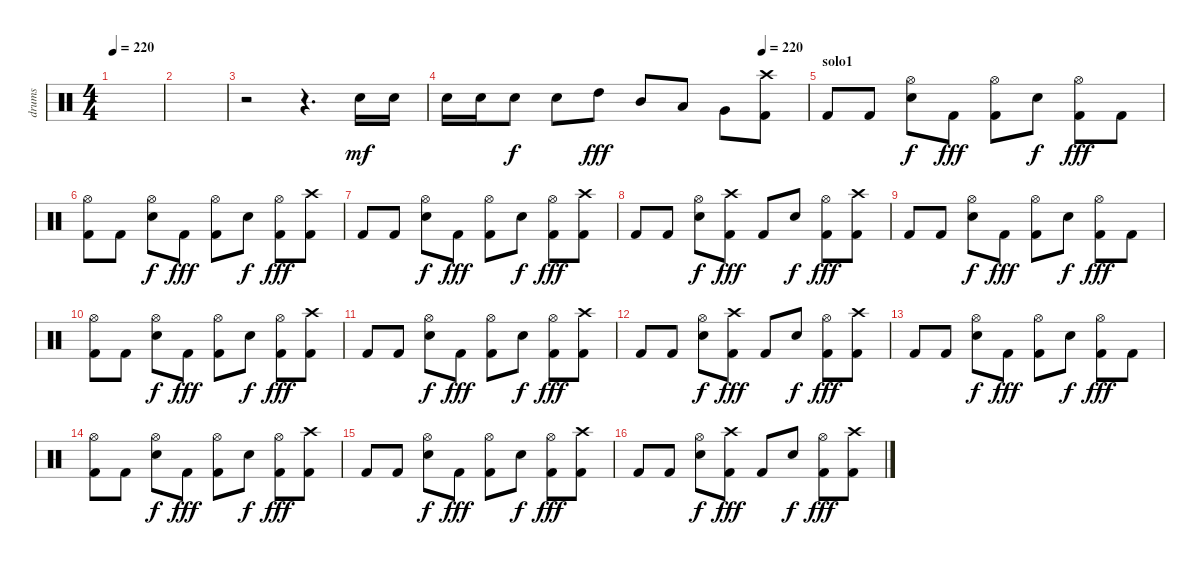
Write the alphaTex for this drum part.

\track ("drums" "drums") {instrument percussion}
\staff {score}
\articulation defaults
\ts (4 4)
\tempo 220
\clef neutral
\ks c
|
|
r.2 r.4{d} "Snare (hit) 2".16{dy mf} "Snare (hit) 2".16 |
\tempo (220 0.875)
"Snare (hit) 2".16 "Snare (hit) 2".16 "Snare (hit) 2".8{dy f} "Snare (hit) 2".8 "High Tom (hit)".8{dy fff} "Mid Tom (hit)".8 "Low Tom (hit)".8 "Very Low Tom (hit)".8 ("Crash high (hit)" "Kick (hit) 2").8 |
\section ("" "solo1")
"Kick (hit) 2".8 "Kick (hit) 2".8 ("Hi-Hat (open)" "Snare (hit) 2").8{dy f} "Kick (hit) 2".8{dy fff} ("Hi-Hat (open)" "Kick (hit) 2").8 "Snare (hit) 2".8{dy f} ("Hi-Hat (open)" "Kick (hit) 2").8{dy fff} "Kick (hit) 2".8 |
("Hi-Hat (open)" "Kick (hit) 2").8 "Kick (hit) 2".8 ("Hi-Hat (open)" "Snare (hit) 2").8{dy f} "Kick (hit) 2".8{dy fff} ("Hi-Hat (open)" "Kick (hit) 2").8 "Snare (hit) 2".8{dy f} ("Hi-Hat (open)" "Kick (hit) 2").8{dy fff} ("Crash high (hit)" "Kick (hit) 2").8 |
"Kick (hit) 2".8 "Kick (hit) 2".8 ("Hi-Hat (open)" "Snare (hit) 2").8{dy f} "Kick (hit) 2".8{dy fff} ("Hi-Hat (open)" "Kick (hit) 2").8 "Snare (hit) 2".8{dy f} ("Hi-Hat (open)" "Kick (hit) 2").8{dy fff} ("Crash high (hit)" "Kick (hit) 2").8 |
"Kick (hit) 2".8 "Kick (hit) 2".8 ("Hi-Hat (open)" "Snare (hit) 2").8{dy f} ("Crash high (hit)" "Kick (hit) 2").8{dy fff} "Kick (hit) 2".8 "Snare (hit) 2".8{dy f} ("Hi-Hat (open)" "Kick (hit) 2").8{dy fff} ("Crash high (hit)" "Kick (hit) 2").8 |
"Kick (hit) 2".8 "Kick (hit) 2".8 ("Hi-Hat (open)" "Snare (hit) 2").8{dy f} "Kick (hit) 2".8{dy fff} ("Hi-Hat (open)" "Kick (hit) 2").8 "Snare (hit) 2".8{dy f} ("Hi-Hat (open)" "Kick (hit) 2").8{dy fff} "Kick (hit) 2".8 |
("Hi-Hat (open)" "Kick (hit) 2").8 "Kick (hit) 2".8 ("Hi-Hat (open)" "Snare (hit) 2").8{dy f} "Kick (hit) 2".8{dy fff} ("Hi-Hat (open)" "Kick (hit) 2").8 "Snare (hit) 2".8{dy f} ("Hi-Hat (open)" "Kick (hit) 2").8{dy fff} ("Crash high (hit)" "Kick (hit) 2").8 |
"Kick (hit) 2".8 "Kick (hit) 2".8 ("Hi-Hat (open)" "Snare (hit) 2").8{dy f} "Kick (hit) 2".8{dy fff} ("Hi-Hat (open)" "Kick (hit) 2").8 "Snare (hit) 2".8{dy f} ("Hi-Hat (open)" "Kick (hit) 2").8{dy fff} ("Crash high (hit)" "Kick (hit) 2").8 |
"Kick (hit) 2".8 "Kick (hit) 2".8 ("Hi-Hat (open)" "Snare (hit) 2").8{dy f} ("Crash high (hit)" "Kick (hit) 2").8{dy fff} "Kick (hit) 2".8 "Snare (hit) 2".8{dy f} ("Hi-Hat (open)" "Kick (hit) 2").8{dy fff} ("Crash high (hit)" "Kick (hit) 2").8 |
"Kick (hit) 2".8 "Kick (hit) 2".8 ("Hi-Hat (open)" "Snare (hit) 2").8{dy f} "Kick (hit) 2".8{dy fff} ("Hi-Hat (open)" "Kick (hit) 2").8 "Snare (hit) 2".8{dy f} ("Hi-Hat (open)" "Kick (hit) 2").8{dy fff} "Kick (hit) 2".8 |
("Hi-Hat (open)" "Kick (hit) 2").8 "Kick (hit) 2".8 ("Hi-Hat (open)" "Snare (hit) 2").8{dy f} "Kick (hit) 2".8{dy fff} ("Hi-Hat (open)" "Kick (hit) 2").8 "Snare (hit) 2".8{dy f} ("Hi-Hat (open)" "Kick (hit) 2").8{dy fff} ("Crash high (hit)" "Kick (hit) 2").8 |
"Kick (hit) 2".8 "Kick (hit) 2".8 ("Hi-Hat (open)" "Snare (hit) 2").8{dy f} "Kick (hit) 2".8{dy fff} ("Hi-Hat (open)" "Kick (hit) 2").8 "Snare (hit) 2".8{dy f} ("Hi-Hat (open)" "Kick (hit) 2").8{dy fff} ("Crash high (hit)" "Kick (hit) 2").8 |
"Kick (hit) 2".8 "Kick (hit) 2".8 ("Hi-Hat (open)" "Snare (hit) 2").8{dy f} ("Crash high (hit)" "Kick (hit) 2").8{dy fff} "Kick (hit) 2".8 "Snare (hit) 2".8{dy f} ("Hi-Hat (open)" "Kick (hit) 2").8{dy fff} ("Crash high (hit)" "Kick (hit) 2").8
